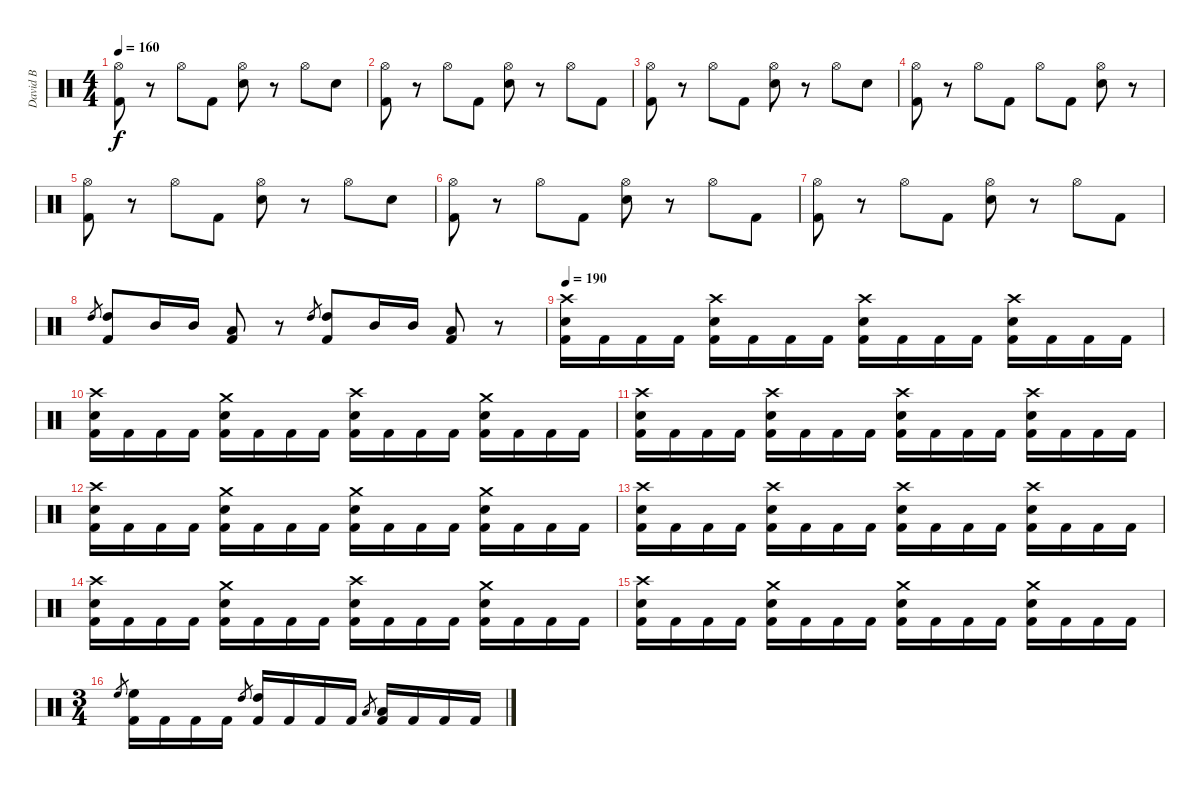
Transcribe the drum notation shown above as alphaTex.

\track ("David B" "David B") {instrument percussion}
\staff {score}
\articulation defaults
\ts (4 4)
\tempo 160
\clef neutral
\ks c
("Hi-Hat (open)" "Kick (hit) 2").8{dy f} r.8 "Hi-Hat (open)".8 "Kick (hit) 2".8 ("Hi-Hat (open)" "Electric Snare (hit)").8 r.8 "Hi-Hat (open)".8 "Electric Snare (hit)".8 |
("Hi-Hat (open)" "Kick (hit) 2").8 r.8 "Hi-Hat (open)".8 "Kick (hit) 2".8 ("Hi-Hat (open)" "Electric Snare (hit)").8 r.8 "Hi-Hat (open)".8 "Kick (hit) 2".8 |
("Hi-Hat (open)" "Kick (hit) 2").8 r.8 "Hi-Hat (open)".8 "Kick (hit) 2".8 ("Hi-Hat (open)" "Electric Snare (hit)").8 r.8 "Hi-Hat (open)".8 "Electric Snare (hit)".8 |
("Hi-Hat (open)" "Kick (hit) 2").8 r.8 "Hi-Hat (open)".8 "Kick (hit) 2".8 "Hi-Hat (open)".8 "Kick (hit) 2".8 ("Hi-Hat (open)" "Electric Snare (hit)").8 r.8 |
("Hi-Hat (open)" "Kick (hit) 2").8 r.8 "Hi-Hat (open)".8 "Kick (hit) 2".8 ("Hi-Hat (open)" "Electric Snare (hit)").8 r.8 "Hi-Hat (open)".8 "Electric Snare (hit)".8 |
("Hi-Hat (open)" "Kick (hit) 2").8 r.8 "Hi-Hat (open)".8 "Kick (hit) 2".8 ("Hi-Hat (open)" "Electric Snare (hit)").8 r.8 "Hi-Hat (open)".8 "Kick (hit) 2".8 |
("Hi-Hat (open)" "Kick (hit) 2").8 r.8 "Hi-Hat (open)".8 "Kick (hit) 2".8 ("Hi-Hat (open)" "Electric Snare (hit)").8 r.8 "Hi-Hat (open)".8 "Kick (hit) 2".8 |
"High Tom (hit)".8{gr} ("High Tom (hit)" "Kick (hit) 2").8 "Mid Tom (hit)".16 "Mid Tom (hit)".16 ("Low Tom (hit)" "Kick (hit) 2").8 r.8 "High Tom (hit)".8{gr} ("High Tom (hit)" "Kick (hit) 2").8 "Mid Tom (hit)".16 "Mid Tom (hit)".16 ("Low Tom (hit)" "Kick (hit) 2").8 r.8 |
\tempo 180
\tempo 190
("Crash high (hit)" "Electric Snare (hit)" "Kick (hit) 2").16 "Kick (hit) 2".16 "Kick (hit) 2".16 "Kick (hit) 2".16 ("Crash high (hit)" "Electric Snare (hit)" "Kick (hit) 2").16 "Kick (hit) 2".16 "Kick (hit) 2".16 "Kick (hit) 2".16 ("Crash high (hit)" "Electric Snare (hit)" "Kick (hit) 2").16 "Kick (hit) 2".16 "Kick (hit) 2".16 "Kick (hit) 2".16 ("Crash high (hit)" "Electric Snare (hit)" "Kick (hit) 2").16 "Kick (hit) 2".16 "Kick (hit) 2".16 "Kick (hit) 2".16 |
("Crash high (hit)" "Electric Snare (hit)" "Kick (hit) 2").16 "Kick (hit) 2".16 "Kick (hit) 2".16 "Kick (hit) 2".16 ("Crash medium (hit)" "Electric Snare (hit)" "Kick (hit) 2").16 "Kick (hit) 2".16 "Kick (hit) 2".16 "Kick (hit) 2".16 ("Crash high (hit)" "Electric Snare (hit)" "Kick (hit) 2").16 "Kick (hit) 2".16 "Kick (hit) 2".16 "Kick (hit) 2".16 ("Crash medium (hit)" "Electric Snare (hit)" "Kick (hit) 2").16 "Kick (hit) 2".16 "Kick (hit) 2".16 "Kick (hit) 2".16 |
("Crash high (hit)" "Electric Snare (hit)" "Kick (hit) 2").16 "Kick (hit) 2".16 "Kick (hit) 2".16 "Kick (hit) 2".16 ("Crash high (hit)" "Electric Snare (hit)" "Kick (hit) 2").16 "Kick (hit) 2".16 "Kick (hit) 2".16 "Kick (hit) 2".16 ("Crash high (hit)" "Electric Snare (hit)" "Kick (hit) 2").16 "Kick (hit) 2".16 "Kick (hit) 2".16 "Kick (hit) 2".16 ("Crash high (hit)" "Electric Snare (hit)" "Kick (hit) 2").16 "Kick (hit) 2".16 "Kick (hit) 2".16 "Kick (hit) 2".16 |
("Crash high (hit)" "Electric Snare (hit)" "Kick (hit) 2").16 "Kick (hit) 2".16 "Kick (hit) 2".16 "Kick (hit) 2".16 ("Crash medium (hit)" "Electric Snare (hit)" "Kick (hit) 2").16 "Kick (hit) 2".16 "Kick (hit) 2".16 "Kick (hit) 2".16 ("Crash medium (hit)" "Electric Snare (hit)" "Kick (hit) 2").16 "Kick (hit) 2".16 "Kick (hit) 2".16 "Kick (hit) 2".16 ("Crash medium (hit)" "Electric Snare (hit)" "Kick (hit) 2").16 "Kick (hit) 2".16 "Kick (hit) 2".16 "Kick (hit) 2".16 |
("Crash high (hit)" "Electric Snare (hit)" "Kick (hit) 2").16 "Kick (hit) 2".16 "Kick (hit) 2".16 "Kick (hit) 2".16 ("Crash high (hit)" "Electric Snare (hit)" "Kick (hit) 2").16 "Kick (hit) 2".16 "Kick (hit) 2".16 "Kick (hit) 2".16 ("Crash high (hit)" "Electric Snare (hit)" "Kick (hit) 2").16 "Kick (hit) 2".16 "Kick (hit) 2".16 "Kick (hit) 2".16 ("Crash high (hit)" "Electric Snare (hit)" "Kick (hit) 2").16 "Kick (hit) 2".16 "Kick (hit) 2".16 "Kick (hit) 2".16 |
("Crash high (hit)" "Electric Snare (hit)" "Kick (hit) 2").16 "Kick (hit) 2".16 "Kick (hit) 2".16 "Kick (hit) 2".16 ("Crash medium (hit)" "Electric Snare (hit)" "Kick (hit) 2").16 "Kick (hit) 2".16 "Kick (hit) 2".16 "Kick (hit) 2".16 ("Crash high (hit)" "Electric Snare (hit)" "Kick (hit) 2").16 "Kick (hit) 2".16 "Kick (hit) 2".16 "Kick (hit) 2".16 ("Crash medium (hit)" "Electric Snare (hit)" "Kick (hit) 2").16 "Kick (hit) 2".16 "Kick (hit) 2".16 "Kick (hit) 2".16 |
("Crash high (hit)" "Electric Snare (hit)" "Kick (hit) 2").16 "Kick (hit) 2".16 "Kick (hit) 2".16 "Kick (hit) 2".16 ("Crash medium (hit)" "Electric Snare (hit)" "Kick (hit) 2").16 "Kick (hit) 2".16 "Kick (hit) 2".16 "Kick (hit) 2".16 ("Crash medium (hit)" "Electric Snare (hit)" "Kick (hit) 2").16 "Kick (hit) 2".16 "Kick (hit) 2".16 "Kick (hit) 2".16 ("Crash medium (hit)" "Electric Snare (hit)" "Kick (hit) 2").16 "Kick (hit) 2".16 "Kick (hit) 2".16 "Kick (hit) 2".16 |
\ts (3 4)
"High Floor Tom (hit)".8{gr} ("High Floor Tom (hit)" "Kick (hit) 2").16 "Kick (hit) 2".16 "Kick (hit) 2".16 "Kick (hit) 2".16 "High Tom (hit)".8{gr} ("High Tom (hit)" "Kick (hit) 2").16 "Kick (hit) 2".16 "Kick (hit) 2".16 "Kick (hit) 2".16 "Low Tom (hit)".8{gr} ("Low Tom (hit)" "Kick (hit) 2").16 "Kick (hit) 2".16 "Kick (hit) 2".16 "Kick (hit) 2".16
